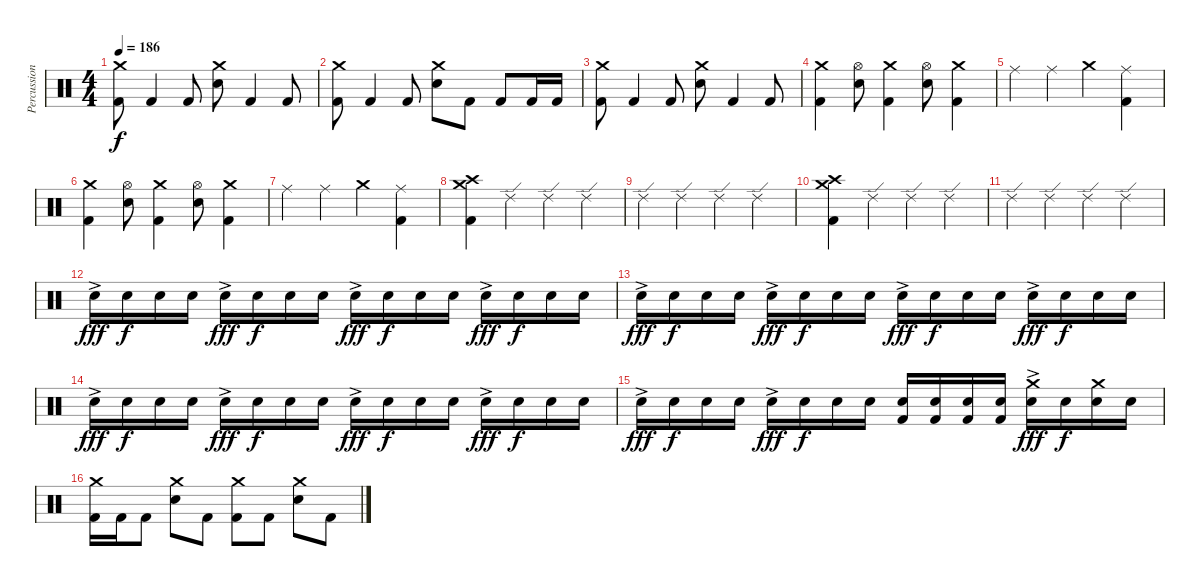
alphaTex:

\track ("Percussion" "Percussion") {instrument percussion}
\staff {score}
\articulation defaults
\ts (4 4)
\tempo 186
\clef neutral
\ks c
("Crash medium (hit)" "Kick (hit) 2").8{dy f} "Kick (hit) 2".4 "Kick (hit) 2".8 ("Crash medium (hit)" "Snare (hit) 2").8 "Kick (hit) 2".4 "Kick (hit) 2".8 |
("Crash medium (hit)" "Kick (hit) 2").8 "Kick (hit) 2".4 "Kick (hit) 2".8 ("Crash medium (hit)" "Snare (hit) 2").8 "Kick (hit) 2".8 "Kick (hit) 2".8 "Kick (hit) 2".16 "Kick (hit) 2".16 |
("Crash medium (hit)" "Kick (hit) 2").8 "Kick (hit) 2".4 "Kick (hit) 2".8 ("Crash medium (hit)" "Snare (hit) 2").8 "Kick (hit) 2".4 "Kick (hit) 2".8 |
("Crash medium (hit)" "Kick (hit) 2").4 ("Hi-Hat (open)" "Snare (hit) 2").8 ("Crash medium (hit)" "Kick (hit) 2").4 ("Hi-Hat (open)" "Snare (hit) 2").8 ("Crash medium (hit)" "Kick (hit) 2").4 |
"Ride (middle)".4 "Ride (middle)".4 "Crash medium (hit)".4 ("Ride (middle)" "Kick (hit) 2").4 |
("Crash medium (hit)" "Kick (hit) 2").4 ("Hi-Hat (open)" "Snare (hit) 2").8 ("Crash medium (hit)" "Kick (hit) 2").4 ("Hi-Hat (open)" "Snare (hit) 2").8 ("Crash medium (hit)" "Kick (hit) 2").4 |
"Ride (middle)".4 "Ride (middle)".4 "Crash medium (hit)".4 ("Ride (middle)" "Kick (hit) 2").4 |
("Crash medium (hit)" "Crash high (hit)" "Kick (hit) 2").4 "Ride (edge) 2".4 "Ride (edge) 2".4 "Ride (edge) 2".4 |
"Ride (edge) 2".4 "Ride (edge) 2".4 "Ride (edge) 2".4 "Ride (edge) 2".4 |
("Crash medium (hit)" "Crash high (hit)" "Kick (hit) 2").4 "Ride (edge) 2".4 "Ride (edge) 2".4 "Ride (edge) 2".4 |
"Ride (edge) 2".4 "Ride (edge) 2".4 "Ride (edge) 2".4 "Ride (edge) 2".4 |
"Snare (hit) 2"{ac}.16{dy fff} "Snare (hit) 2".16{dy f} "Snare (hit) 2".16 "Snare (hit) 2".16 "Snare (hit) 2"{ac}.16{dy fff} "Snare (hit) 2".16{dy f} "Snare (hit) 2".16 "Snare (hit) 2".16 "Snare (hit) 2"{ac}.16{dy fff} "Snare (hit) 2".16{dy f} "Snare (hit) 2".16 "Snare (hit) 2".16 "Snare (hit) 2"{ac}.16{dy fff} "Snare (hit) 2".16{dy f} "Snare (hit) 2".16 "Snare (hit) 2".16 |
"Snare (hit) 2"{ac}.16{dy fff} "Snare (hit) 2".16{dy f} "Snare (hit) 2".16 "Snare (hit) 2".16 "Snare (hit) 2"{ac}.16{dy fff} "Snare (hit) 2".16{dy f} "Snare (hit) 2".16 "Snare (hit) 2".16 "Snare (hit) 2"{ac}.16{dy fff} "Snare (hit) 2".16{dy f} "Snare (hit) 2".16 "Snare (hit) 2".16 "Snare (hit) 2"{ac}.16{dy fff} "Snare (hit) 2".16{dy f} "Snare (hit) 2".16 "Snare (hit) 2".16 |
"Snare (hit) 2"{ac}.16{dy fff} "Snare (hit) 2".16{dy f} "Snare (hit) 2".16 "Snare (hit) 2".16 "Snare (hit) 2"{ac}.16{dy fff} "Snare (hit) 2".16{dy f} "Snare (hit) 2".16 "Snare (hit) 2".16 "Snare (hit) 2"{ac}.16{dy fff} "Snare (hit) 2".16{dy f} "Snare (hit) 2".16 "Snare (hit) 2".16 "Snare (hit) 2"{ac}.16{dy fff} "Snare (hit) 2".16{dy f} "Snare (hit) 2".16 "Snare (hit) 2".16 |
"Snare (hit) 2"{ac}.16{dy fff} "Snare (hit) 2".16{dy f} "Snare (hit) 2".16 "Snare (hit) 2".16 "Snare (hit) 2"{ac}.16{dy fff} "Snare (hit) 2".16{dy f} "Snare (hit) 2".16 "Snare (hit) 2".16 ("Kick (hit) 2" "Snare (hit) 2").16 ("Kick (hit) 2" "Snare (hit) 2").16 ("Kick (hit) 2" "Snare (hit) 2").16 ("Kick (hit) 2" "Snare (hit) 2").16 ("Crash medium (hit)" "Snare (hit) 2"{ac}).16{dy fff} "Snare (hit) 2".16{dy f} ("Crash medium (hit)" "Snare (hit) 2").16 "Snare (hit) 2".16 |
("Crash medium (hit)" "Kick (hit) 2").16 "Kick (hit) 2".16 "Kick (hit) 2".8 ("Crash medium (hit)" "Snare (hit) 2").8 "Kick (hit) 2".8 ("Crash medium (hit)" "Kick (hit) 2").8 "Kick (hit) 2".8 ("Crash medium (hit)" "Snare (hit) 2").8 "Kick (hit) 2".8
